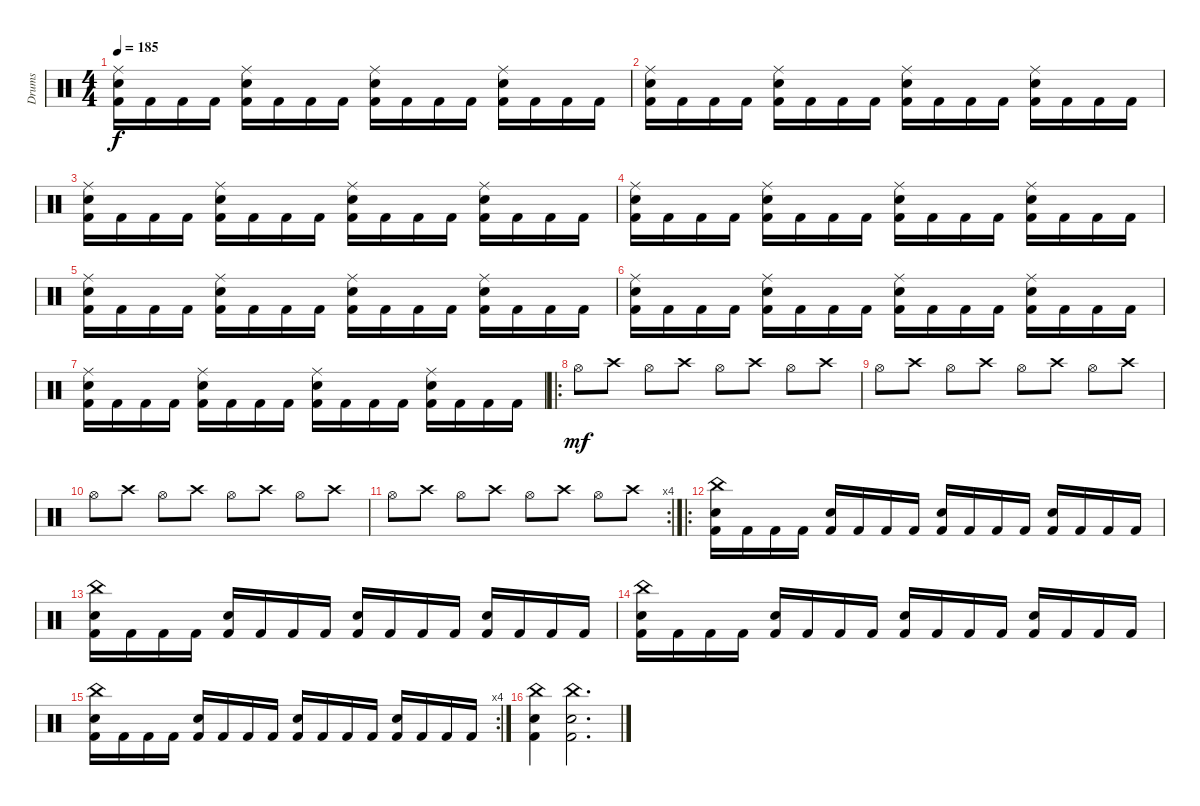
\track ("Drums" "Drums") {instrument percussion}
\staff {score}
\articulation defaults
\ts (4 4)
\tempo 185
\clef neutral
\ks c
("Ride (middle)" "Electric Snare (hit)" "Kick (hit) 2").16{dy f} "Kick (hit) 2".16 "Kick (hit) 2".16 "Kick (hit) 2".16 ("Ride (middle)" "Electric Snare (hit)" "Kick (hit) 2").16 "Kick (hit) 2".16 "Kick (hit) 2".16 "Kick (hit) 2".16 ("Ride (middle)" "Electric Snare (hit)" "Kick (hit) 2").16 "Kick (hit) 2".16 "Kick (hit) 2".16 "Kick (hit) 2".16 ("Ride (middle)" "Electric Snare (hit)" "Kick (hit) 2").16 "Kick (hit) 2".16 "Kick (hit) 2".16 "Kick (hit) 2".16 |
("Ride (middle)" "Electric Snare (hit)" "Kick (hit) 2").16 "Kick (hit) 2".16 "Kick (hit) 2".16 "Kick (hit) 2".16 ("Ride (middle)" "Electric Snare (hit)" "Kick (hit) 2").16 "Kick (hit) 2".16 "Kick (hit) 2".16 "Kick (hit) 2".16 ("Ride (middle)" "Electric Snare (hit)" "Kick (hit) 2").16 "Kick (hit) 2".16 "Kick (hit) 2".16 "Kick (hit) 2".16 ("Ride (middle)" "Electric Snare (hit)" "Kick (hit) 2").16 "Kick (hit) 2".16 "Kick (hit) 2".16 "Kick (hit) 2".16 |
("Ride (middle)" "Electric Snare (hit)" "Kick (hit) 2").16 "Kick (hit) 2".16 "Kick (hit) 2".16 "Kick (hit) 2".16 ("Ride (middle)" "Electric Snare (hit)" "Kick (hit) 2").16 "Kick (hit) 2".16 "Kick (hit) 2".16 "Kick (hit) 2".16 ("Ride (middle)" "Electric Snare (hit)" "Kick (hit) 2").16 "Kick (hit) 2".16 "Kick (hit) 2".16 "Kick (hit) 2".16 ("Ride (middle)" "Electric Snare (hit)" "Kick (hit) 2").16 "Kick (hit) 2".16 "Kick (hit) 2".16 "Kick (hit) 2".16 |
("Ride (middle)" "Electric Snare (hit)" "Kick (hit) 2").16 "Kick (hit) 2".16 "Kick (hit) 2".16 "Kick (hit) 2".16 ("Ride (middle)" "Electric Snare (hit)" "Kick (hit) 2").16 "Kick (hit) 2".16 "Kick (hit) 2".16 "Kick (hit) 2".16 ("Ride (middle)" "Electric Snare (hit)" "Kick (hit) 2").16 "Kick (hit) 2".16 "Kick (hit) 2".16 "Kick (hit) 2".16 ("Ride (middle)" "Electric Snare (hit)" "Kick (hit) 2").16 "Kick (hit) 2".16 "Kick (hit) 2".16 "Kick (hit) 2".16 |
("Ride (middle)" "Electric Snare (hit)" "Kick (hit) 2").16 "Kick (hit) 2".16 "Kick (hit) 2".16 "Kick (hit) 2".16 ("Ride (middle)" "Electric Snare (hit)" "Kick (hit) 2").16 "Kick (hit) 2".16 "Kick (hit) 2".16 "Kick (hit) 2".16 ("Ride (middle)" "Electric Snare (hit)" "Kick (hit) 2").16 "Kick (hit) 2".16 "Kick (hit) 2".16 "Kick (hit) 2".16 ("Ride (middle)" "Electric Snare (hit)" "Kick (hit) 2").16 "Kick (hit) 2".16 "Kick (hit) 2".16 "Kick (hit) 2".16 |
("Ride (middle)" "Electric Snare (hit)" "Kick (hit) 2").16 "Kick (hit) 2".16 "Kick (hit) 2".16 "Kick (hit) 2".16 ("Ride (middle)" "Electric Snare (hit)" "Kick (hit) 2").16 "Kick (hit) 2".16 "Kick (hit) 2".16 "Kick (hit) 2".16 ("Ride (middle)" "Electric Snare (hit)" "Kick (hit) 2").16 "Kick (hit) 2".16 "Kick (hit) 2".16 "Kick (hit) 2".16 ("Ride (middle)" "Electric Snare (hit)" "Kick (hit) 2").16 "Kick (hit) 2".16 "Kick (hit) 2".16 "Kick (hit) 2".16 |
("Ride (middle)" "Electric Snare (hit)" "Kick (hit) 2").16 "Kick (hit) 2".16 "Kick (hit) 2".16 "Kick (hit) 2".16 ("Ride (middle)" "Electric Snare (hit)" "Kick (hit) 2").16 "Kick (hit) 2".16 "Kick (hit) 2".16 "Kick (hit) 2".16 ("Ride (middle)" "Electric Snare (hit)" "Kick (hit) 2").16 "Kick (hit) 2".16 "Kick (hit) 2".16 "Kick (hit) 2".16 ("Ride (middle)" "Electric Snare (hit)" "Kick (hit) 2").16 "Kick (hit) 2".16 "Kick (hit) 2".16 "Kick (hit) 2".16 |
\ro "Hi-Hat (open)".8{dy mf} "Crash high (hit)".8 "Hi-Hat (open)".8 "Crash high (hit)".8 "Hi-Hat (open)".8 "Crash high (hit)".8 "Hi-Hat (open)".8 "Crash high (hit)".8
|
"Hi-Hat (open)".8 "Crash high (hit)".8 "Hi-Hat (open)".8 "Crash high (hit)".8 "Hi-Hat (open)".8 "Crash high (hit)".8 "Hi-Hat (open)".8 "Crash high (hit)".8 |
"Hi-Hat (open)".8 "Crash high (hit)".8 "Hi-Hat (open)".8 "Crash high (hit)".8 "Hi-Hat (open)".8 "Crash high (hit)".8 "Hi-Hat (open)".8 "Crash high (hit)".8 |
\rc 4 "Hi-Hat (open)".8 "Crash high (hit)".8 "Hi-Hat (open)".8 "Crash high (hit)".8 "Hi-Hat (open)".8 "Crash high (hit)".8 "Hi-Hat (open)".8 "Crash high (hit)".8
|
\ro
("China (hit)" "Electric Snare (hit)" "Kick (hit) 2").16 "Kick (hit) 2".16 "Kick (hit) 2".16 "Kick (hit) 2".16 ("Electric Snare (hit)" "Kick (hit) 2").16 "Kick (hit) 2".16 "Kick (hit) 2".16 "Kick (hit) 2".16 ("Electric Snare (hit)" "Kick (hit) 2").16 "Kick (hit) 2".16 "Kick (hit) 2".16 "Kick (hit) 2".16 ("Electric Snare (hit)" "Kick (hit) 2").16 "Kick (hit) 2".16 "Kick (hit) 2".16 "Kick (hit) 2".16 |
("China (hit)" "Electric Snare (hit)" "Kick (hit) 2").16 "Kick (hit) 2".16 "Kick (hit) 2".16 "Kick (hit) 2".16 ("Electric Snare (hit)" "Kick (hit) 2").16 "Kick (hit) 2".16 "Kick (hit) 2".16 "Kick (hit) 2".16 ("Electric Snare (hit)" "Kick (hit) 2").16 "Kick (hit) 2".16 "Kick (hit) 2".16 "Kick (hit) 2".16 ("Electric Snare (hit)" "Kick (hit) 2").16 "Kick (hit) 2".16 "Kick (hit) 2".16 "Kick (hit) 2".16 |
("China (hit)" "Electric Snare (hit)" "Kick (hit) 2").16 "Kick (hit) 2".16 "Kick (hit) 2".16 "Kick (hit) 2".16 ("Electric Snare (hit)" "Kick (hit) 2").16 "Kick (hit) 2".16 "Kick (hit) 2".16 "Kick (hit) 2".16 ("Electric Snare (hit)" "Kick (hit) 2").16 "Kick (hit) 2".16 "Kick (hit) 2".16 "Kick (hit) 2".16 ("Electric Snare (hit)" "Kick (hit) 2").16 "Kick (hit) 2".16 "Kick (hit) 2".16 "Kick (hit) 2".16 |
\rc 4
("China (hit)" "Electric Snare (hit)" "Kick (hit) 2").16 "Kick (hit) 2".16 "Kick (hit) 2".16 "Kick (hit) 2".16 ("Electric Snare (hit)" "Kick (hit) 2").16 "Kick (hit) 2".16 "Kick (hit) 2".16 "Kick (hit) 2".16 ("Electric Snare (hit)" "Kick (hit) 2").16 "Kick (hit) 2".16 "Kick (hit) 2".16 "Kick (hit) 2".16 ("Electric Snare (hit)" "Kick (hit) 2").16 "Kick (hit) 2".16 "Kick (hit) 2".16 "Kick (hit) 2".16 |
("China (hit)" "Electric Snare (hit)" "Kick (hit) 2").4 ("China (hit)" "Electric Snare (hit)" "Kick (hit) 2").2{d}
